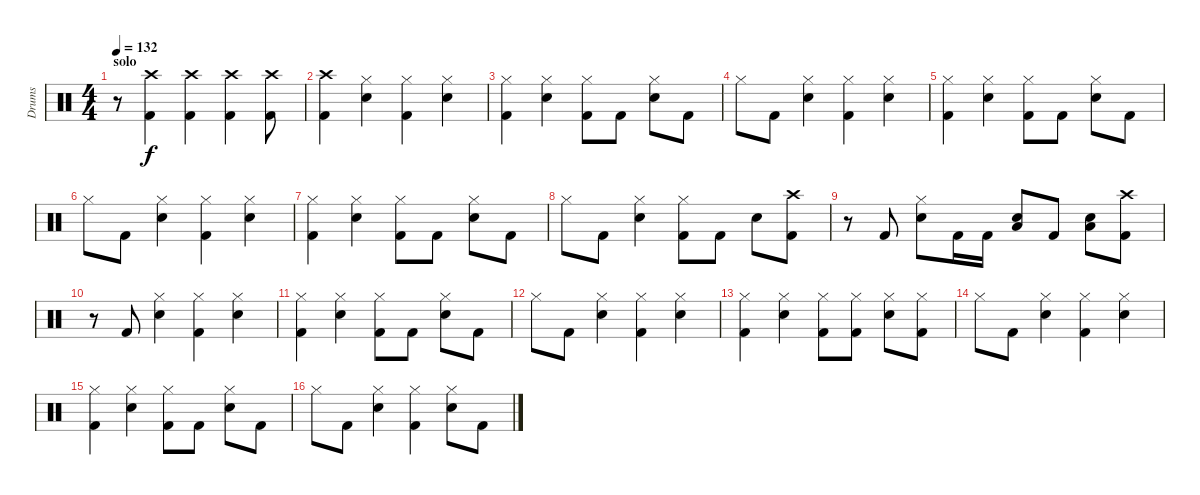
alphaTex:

\track ("Drums" "Drums") {instrument percussion}
\staff {score}
\articulation defaults
\ts (4 4)
\section ("" "solo")
\tempo 132
\clef neutral
\ks c
r.8{dy f} ("Crash high (hit)" "Kick (hit) 2").4 ("Crash high (hit)" "Kick (hit) 2").4 ("Crash high (hit)" "Kick (hit) 2").4 ("Crash high (hit)" "Kick (hit) 2").8 |
("Crash high (hit)" "Kick (hit) 2").4 ("Hi-Hat (closed)" "Electric Snare (hit)").4 ("Hi-Hat (closed)" "Kick (hit) 2").4 ("Hi-Hat (closed)" "Electric Snare (hit)").4 |
("Hi-Hat (closed)" "Kick (hit) 2").4 ("Hi-Hat (closed)" "Electric Snare (hit)").4 ("Hi-Hat (closed)" "Kick (hit) 2").8 "Kick (hit) 2".8 ("Hi-Hat (closed)" "Electric Snare (hit)").8 "Kick (hit) 2".8 |
"Hi-Hat (closed)".8 "Kick (hit) 2".8 ("Hi-Hat (closed)" "Electric Snare (hit)").4 ("Hi-Hat (closed)" "Kick (hit) 2").4 ("Hi-Hat (closed)" "Electric Snare (hit)").4 |
("Hi-Hat (closed)" "Kick (hit) 2").4 ("Hi-Hat (closed)" "Electric Snare (hit)").4 ("Hi-Hat (closed)" "Kick (hit) 2").8 "Kick (hit) 2".8 ("Hi-Hat (closed)" "Electric Snare (hit)").8 "Kick (hit) 2".8 |
"Hi-Hat (closed)".8 "Kick (hit) 2".8 ("Hi-Hat (closed)" "Electric Snare (hit)").4 ("Hi-Hat (closed)" "Kick (hit) 2").4 ("Hi-Hat (closed)" "Electric Snare (hit)").4 |
("Hi-Hat (closed)" "Kick (hit) 2").4 ("Hi-Hat (closed)" "Electric Snare (hit)").4 ("Hi-Hat (closed)" "Kick (hit) 2").8 "Kick (hit) 2".8 ("Hi-Hat (closed)" "Electric Snare (hit)").8 "Kick (hit) 2".8 |
"Hi-Hat (closed)".8 "Kick (hit) 2".8 ("Hi-Hat (closed)" "Electric Snare (hit)").4 ("Hi-Hat (closed)" "Kick (hit) 2").8 "Kick (hit) 2".8 "Electric Snare (hit)".8 ("Crash high (hit)" "Kick (hit) 2").8 |
r.8 "Kick (hit) 2".8 ("Hi-Hat (closed)" "Electric Snare (hit)").8 "Kick (hit) 2".16 "Kick (hit) 2".16 ("Electric Snare (hit)" "Low Tom (hit)").8 "Kick (hit) 2".8 ("Electric Snare (hit)" "Low Tom (hit)").8 ("Crash high (hit)" "Kick (hit) 2").8 |
r.8 "Kick (hit) 2".8 ("Hi-Hat (closed)" "Electric Snare (hit)").4 ("Hi-Hat (closed)" "Kick (hit) 2").4 ("Hi-Hat (closed)" "Electric Snare (hit)").4 |
("Hi-Hat (closed)" "Kick (hit) 2").4 ("Hi-Hat (closed)" "Electric Snare (hit)").4 ("Hi-Hat (closed)" "Kick (hit) 2").8 "Kick (hit) 2".8 ("Hi-Hat (closed)" "Electric Snare (hit)").8 "Kick (hit) 2".8 |
"Hi-Hat (closed)".8 "Kick (hit) 2".8 ("Hi-Hat (closed)" "Electric Snare (hit)").4 ("Hi-Hat (closed)" "Kick (hit) 2").4 ("Hi-Hat (closed)" "Electric Snare (hit)").4 |
("Hi-Hat (closed)" "Kick (hit) 2").4 ("Hi-Hat (closed)" "Electric Snare (hit)").4 ("Hi-Hat (closed)" "Kick (hit) 2").8 ("Hi-Hat (closed)" "Kick (hit) 2").8 ("Hi-Hat (closed)" "Electric Snare (hit)").8 ("Hi-Hat (closed)" "Kick (hit) 2").8 |
"Hi-Hat (closed)".8 "Kick (hit) 2".8 ("Hi-Hat (closed)" "Electric Snare (hit)").4 ("Hi-Hat (closed)" "Kick (hit) 2").4 ("Hi-Hat (closed)" "Electric Snare (hit)").4 |
("Hi-Hat (closed)" "Kick (hit) 2").4 ("Hi-Hat (closed)" "Electric Snare (hit)").4 ("Hi-Hat (closed)" "Kick (hit) 2").8 "Kick (hit) 2".8 ("Hi-Hat (closed)" "Electric Snare (hit)").8 "Kick (hit) 2".8 |
"Hi-Hat (closed)".8 "Kick (hit) 2".8 ("Hi-Hat (closed)" "Electric Snare (hit)").4 ("Hi-Hat (closed)" "Kick (hit) 2").4 ("Hi-Hat (closed)" "Electric Snare (hit)").8 "Kick (hit) 2".8
